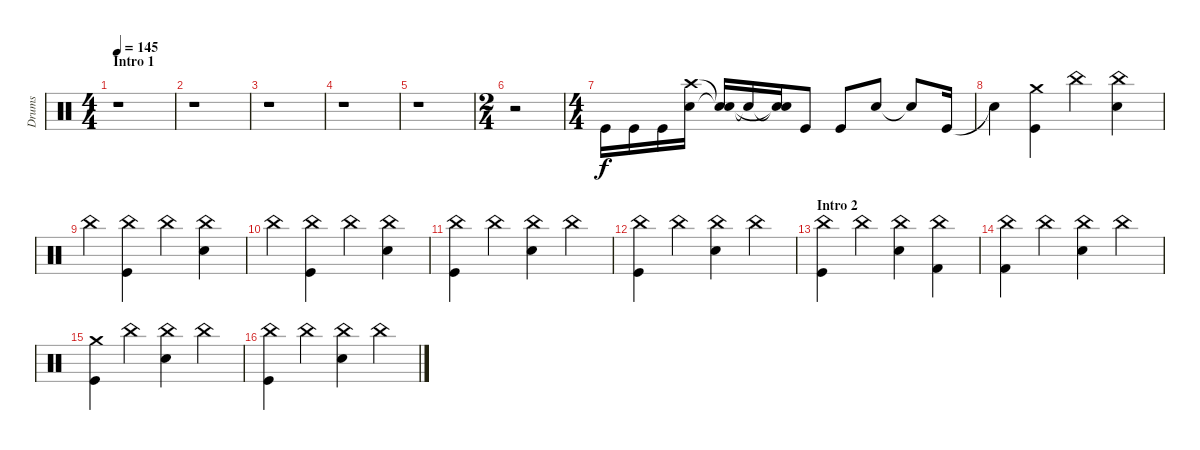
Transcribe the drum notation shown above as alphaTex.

\track ("Drums" "Drums") {instrument percussion}
\staff {score}
\articulation defaults
\ts (4 4)
\section ("" "Intro 1")
\tempo 145
\clef neutral
\ks c
r.1{dy f} |
r.1 |
r.1 |
r.1 |
r.1 |
\ts (2 4)
r.2 |
\ts (4 4)
"Kick (hit)".16 "Kick (hit)".16 "Kick (hit)".16 ("Crash high (hit)" "Electric Snare (hit)").16 ("Snare (hit)"{t} "Snare (hit)"{t}).16 "Snare (hit)"{t}.16 ("Snare (hit)"{t} "Snare (hit)"{t}).16 "Kick (hit)".8 "Kick (hit)".8 "Electric Snare (hit)".8 "Snare (hit)"{t}.8 "Kick (hit)".16 |
"Snare (hit)"{t}.4 ("Crash medium (hit)" "Kick (hit)").4 "China (hit)".4 ("China (hit)" "Electric Snare (hit)").4 |
"China (hit)".4 ("China (hit)" "Kick (hit)").4 "China (hit)".4 ("China (hit)" "Electric Snare (hit)").4 |
"China (hit)".4 ("China (hit)" "Kick (hit)").4 "China (hit)".4 ("China (hit)" "Electric Snare (hit)").4 |
("China (hit)" "Kick (hit)").4 "China (hit)".4 ("China (hit)" "Electric Snare (hit)").4 "China (hit)".4 |
("China (hit)" "Kick (hit)").4 "China (hit)".4 ("China (hit)" "Electric Snare (hit)").4 "China (hit)".4 |
\section ("" "Intro 2")
("China (hit)" "Kick (hit)").4 "China (hit)".4 ("China (hit)" "Electric Snare (hit)").4 ("China (hit)" "Kick (hit) 2").4 |
("China (hit)" "Kick (hit) 2").4 "China (hit)".4 ("China (hit)" "Electric Snare (hit)").4 "China (hit)".4 |
("Crash medium (hit)" "Kick (hit)").4 "China (hit)".4 ("China (hit)" "Electric Snare (hit)").4 "China (hit)".4 |
("China (hit)" "Kick (hit)").4 "China (hit)".4 ("China (hit)" "Electric Snare (hit)").4 "China (hit)".4
